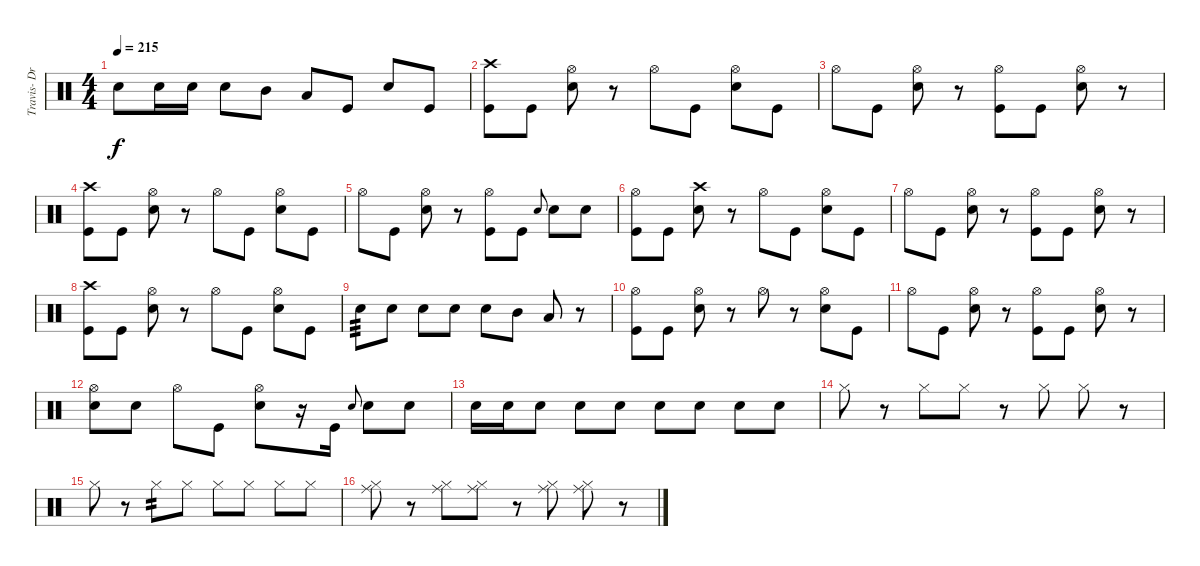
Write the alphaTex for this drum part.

\track ("Travis- Drums" "Travis- Dr") {instrument percussion}
\staff {score}
\articulation defaults
\ts (4 4)
\tempo 215
\clef neutral
\ks c "Electric Snare (hit)".8{dy f} "Electric Snare (hit)".16 "Electric Snare (hit)".16 "Electric Snare (hit)".8 "Mid Tom (hit)".8 "Low Tom (hit)".8 "Kick (hit)".8 "Electric Snare (hit)".8 "Kick (hit)".8
|
("Crash high (hit)" "Kick (hit)").8 "Kick (hit)".8 ("Hi-Hat (open)" "Electric Snare (hit)").8 r.8 "Hi-Hat (open)".8 "Kick (hit)".8 ("Hi-Hat (open)" "Electric Snare (hit)").8 "Kick (hit)".8 |
"Hi-Hat (open)".8 "Kick (hit)".8 ("Hi-Hat (open)" "Electric Snare (hit)").8 r.8 ("Hi-Hat (open)" "Kick (hit)").8 "Kick (hit)".8 ("Hi-Hat (open)" "Electric Snare (hit)").8 r.8 |
("Crash high (hit)" "Kick (hit)").8 "Kick (hit)".8 ("Hi-Hat (open)" "Electric Snare (hit)").8 r.8 "Hi-Hat (open)".8 "Kick (hit)".8 ("Hi-Hat (open)" "Electric Snare (hit)").8 "Kick (hit)".8 |
"Hi-Hat (open)".8 "Kick (hit)".8 ("Hi-Hat (open)" "Electric Snare (hit)").8 r.8 ("Hi-Hat (open)" "Kick (hit)").8 "Kick (hit)".8 "Electric Snare (hit)".8{gr onbeat} "Electric Snare (hit)".8 "Electric Snare (hit)".8 |
("Hi-Hat (open)" "Kick (hit)").8 "Kick (hit)".8 ("Crash high (hit)" "Electric Snare (hit)").8 r.8 "Hi-Hat (open)".8 "Kick (hit)".8 ("Hi-Hat (open)" "Electric Snare (hit)").8 "Kick (hit)".8 |
"Hi-Hat (open)".8 "Kick (hit)".8 ("Hi-Hat (open)" "Electric Snare (hit)").8 r.8 ("Hi-Hat (open)" "Kick (hit)").8 "Kick (hit)".8 ("Hi-Hat (open)" "Electric Snare (hit)").8 r.8 |
("Crash high (hit)" "Kick (hit)").8 "Kick (hit)".8 ("Hi-Hat (open)" "Electric Snare (hit)").8 r.8 "Hi-Hat (open)".8 "Kick (hit)".8 ("Hi-Hat (open)" "Electric Snare (hit)").8 "Kick (hit)".8 |
"Electric Snare (hit)".8{tp 3} "Electric Snare (hit)".8 "Electric Snare (hit)".8 "Electric Snare (hit)".8 "Electric Snare (hit)".8 "Mid Tom (hit)".8 "Low Tom (hit)".8 r.8 |
("Hi-Hat (open)" "Kick (hit)").8 "Kick (hit)".8 ("Hi-Hat (open)" "Electric Snare (hit)").8 r.8 "Hi-Hat (open)".8 r.8 ("Hi-Hat (open)" "Electric Snare (hit)").8 "Kick (hit)".8 |
"Hi-Hat (open)".8 "Kick (hit)".8 ("Hi-Hat (open)" "Electric Snare (hit)").8 r.8 ("Hi-Hat (open)" "Kick (hit)").8 "Kick (hit)".8 ("Hi-Hat (open)" "Electric Snare (hit)").8 r.8 |
("Hi-Hat (open)" "Electric Snare (hit)").8 "Electric Snare (hit)".8 "Hi-Hat (open)".8 "Kick (hit)".8 ("Hi-Hat (open)" "Electric Snare (hit)").8 r.16 "Kick (hit)".16 "Electric Snare (hit)".8{gr onbeat} "Electric Snare (hit)".8 "Electric Snare (hit)".8 |
"Electric Snare (hit)".16 "Electric Snare (hit)".16 "Electric Snare (hit)".8 "Electric Snare (hit)".8 "Electric Snare (hit)".8 "Electric Snare (hit)".8 "Electric Snare (hit)".8 "Electric Snare (hit)".8 "Electric Snare (hit)".8 |
"Hi-Hat (closed)".8 r.8 "Hi-Hat (closed)".8 "Hi-Hat (closed)".8 r.8 "Hi-Hat (closed)".8 "Hi-Hat (closed)".8 r.8 |
"Hi-Hat (closed)".8 r.8 "Hi-Hat (closed)".8{tp 2} "Hi-Hat (closed)".8 "Hi-Hat (closed)".8 "Hi-Hat (closed)".8 "Hi-Hat (closed)".8 "Hi-Hat (closed)".8 |
("Ride (middle)" "Hi-Hat (closed)").8 r.8 ("Ride (middle)" "Hi-Hat (closed)").8 ("Ride (middle)" "Hi-Hat (closed)").8 r.8 ("Ride (middle)" "Hi-Hat (closed)").8 ("Ride (middle)" "Hi-Hat (closed)").8 r.8
